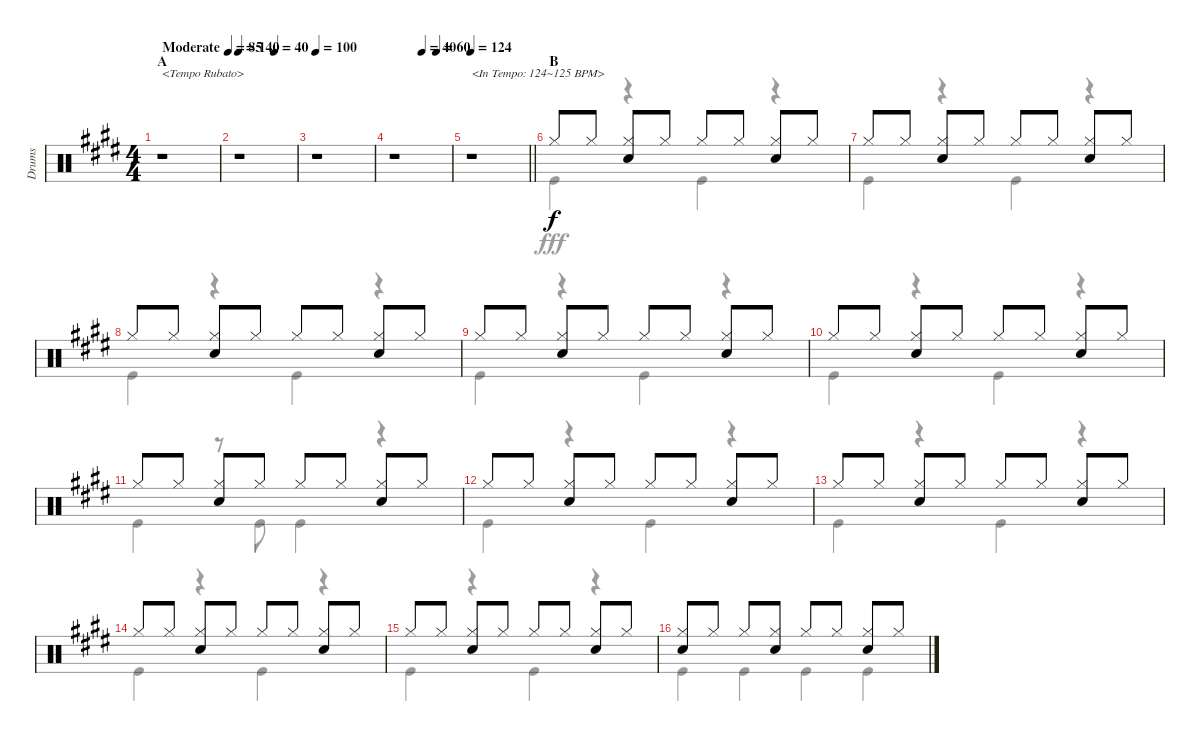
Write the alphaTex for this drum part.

\track ("Drums" "Drums") {instrument percussion}
\staff {score}
\articulation defaults
\voice
\ts (4 4)
\section ("" "A")
\tempo (85 "Moderate")
\clef neutral
\ks e
r.1{txt "<Tempo Rubato>" dy f} |
\tempo 140
\tempo (40 0.625)
r.1 |
\tempo 100
r.1 |
\tempo (40 0.5)
\tempo (60 0.75)
r.1 |
\tempo 124
\barLineRight lightlight
r.1{txt "<In Tempo: 124~125 BPM>"} |
\section ("" "B")
"Hi-Hat (closed)".8 "Hi-Hat (closed)".8 ("Hi-Hat (closed)" "Snare (hit) 2").8 "Hi-Hat (closed)".8 "Hi-Hat (closed)".8 "Hi-Hat (closed)".8 ("Hi-Hat (closed)" "Snare (hit) 2").8 "Hi-Hat (closed)".8 |
"Hi-Hat (closed)".8 "Hi-Hat (closed)".8 ("Hi-Hat (closed)" "Snare (hit) 2").8 "Hi-Hat (closed)".8 "Hi-Hat (closed)".8 "Hi-Hat (closed)".8 ("Hi-Hat (closed)" "Snare (hit) 2").8 "Hi-Hat (closed)".8 |
"Hi-Hat (closed)".8 "Hi-Hat (closed)".8 ("Hi-Hat (closed)" "Snare (hit) 2").8 "Hi-Hat (closed)".8 "Hi-Hat (closed)".8 "Hi-Hat (closed)".8 ("Hi-Hat (closed)" "Snare (hit) 2").8 "Hi-Hat (closed)".8 |
"Hi-Hat (closed)".8 "Hi-Hat (closed)".8 ("Hi-Hat (closed)" "Snare (hit) 2").8 "Hi-Hat (closed)".8 "Hi-Hat (closed)".8 "Hi-Hat (closed)".8 ("Hi-Hat (closed)" "Snare (hit) 2").8 "Hi-Hat (closed)".8 |
"Hi-Hat (closed)".8 "Hi-Hat (closed)".8 ("Hi-Hat (closed)" "Snare (hit) 2").8 "Hi-Hat (closed)".8 "Hi-Hat (closed)".8 "Hi-Hat (closed)".8 ("Hi-Hat (closed)" "Snare (hit) 2").8 "Hi-Hat (closed)".8 |
"Hi-Hat (closed)".8 "Hi-Hat (closed)".8 ("Hi-Hat (closed)" "Snare (hit) 2").8 "Hi-Hat (closed)".8 "Hi-Hat (closed)".8 "Hi-Hat (closed)".8 ("Hi-Hat (closed)" "Snare (hit) 2").8 "Hi-Hat (closed)".8 |
"Hi-Hat (closed)".8 "Hi-Hat (closed)".8 ("Hi-Hat (closed)" "Snare (hit) 2").8 "Hi-Hat (closed)".8 "Hi-Hat (closed)".8 "Hi-Hat (closed)".8 ("Hi-Hat (closed)" "Snare (hit) 2").8 "Hi-Hat (closed)".8 |
"Hi-Hat (closed)".8 "Hi-Hat (closed)".8 ("Hi-Hat (closed)" "Snare (hit) 2").8 "Hi-Hat (closed)".8 "Hi-Hat (closed)".8 "Hi-Hat (closed)".8 ("Hi-Hat (closed)" "Snare (hit) 2").8 "Hi-Hat (closed)".8 |
"Hi-Hat (closed)".8 "Hi-Hat (closed)".8 ("Hi-Hat (closed)" "Snare (hit) 2").8 "Hi-Hat (closed)".8 "Hi-Hat (closed)".8 "Hi-Hat (closed)".8 ("Hi-Hat (closed)" "Snare (hit) 2").8 "Hi-Hat (closed)".8 |
"Hi-Hat (closed)".8 "Hi-Hat (closed)".8 ("Hi-Hat (closed)" "Snare (hit) 2").8 "Hi-Hat (closed)".8 "Hi-Hat (closed)".8 "Hi-Hat (closed)".8 ("Hi-Hat (closed)" "Snare (hit) 2").8 "Hi-Hat (closed)".8 |
("Hi-Hat (closed)" "Snare (hit) 2").8 "Hi-Hat (closed)".8 "Hi-Hat (closed)".8 ("Hi-Hat (closed)" "Snare (hit) 2").8 "Hi-Hat (closed)".8 "Hi-Hat (closed)".8 ("Hi-Hat (closed)" "Snare (hit) 2").8 "Hi-Hat (closed)".8
\voice
\clef neutral
\ottava regular
\simile none
\ks e
r.1{dy fff} |
r.1 |
r.1 |
r.1 |
\barLineRight lightlight
r.1 |
"Kick (hit)".4 r.4 "Kick (hit)".4 r.4 |
"Kick (hit)".4 r.4 "Kick (hit)".4 r.4 |
"Kick (hit)".4 r.4 "Kick (hit)".4 r.4 |
"Kick (hit)".4 r.4 "Kick (hit)".4 r.4 |
"Kick (hit)".4 r.4 "Kick (hit)".4 r.4 |
"Kick (hit)".4 r.8 "Kick (hit)".8 "Kick (hit)".4 r.4 |
"Kick (hit)".4 r.4 "Kick (hit)".4 r.4 |
"Kick (hit)".4 r.4 "Kick (hit)".4 r.4 |
"Kick (hit)".4 r.4 "Kick (hit)".4 r.4 |
"Kick (hit)".4 r.4 "Kick (hit)".4 r.4 |
"Kick (hit)".4 "Kick (hit)".4 "Kick (hit)".4 "Kick (hit)".4
